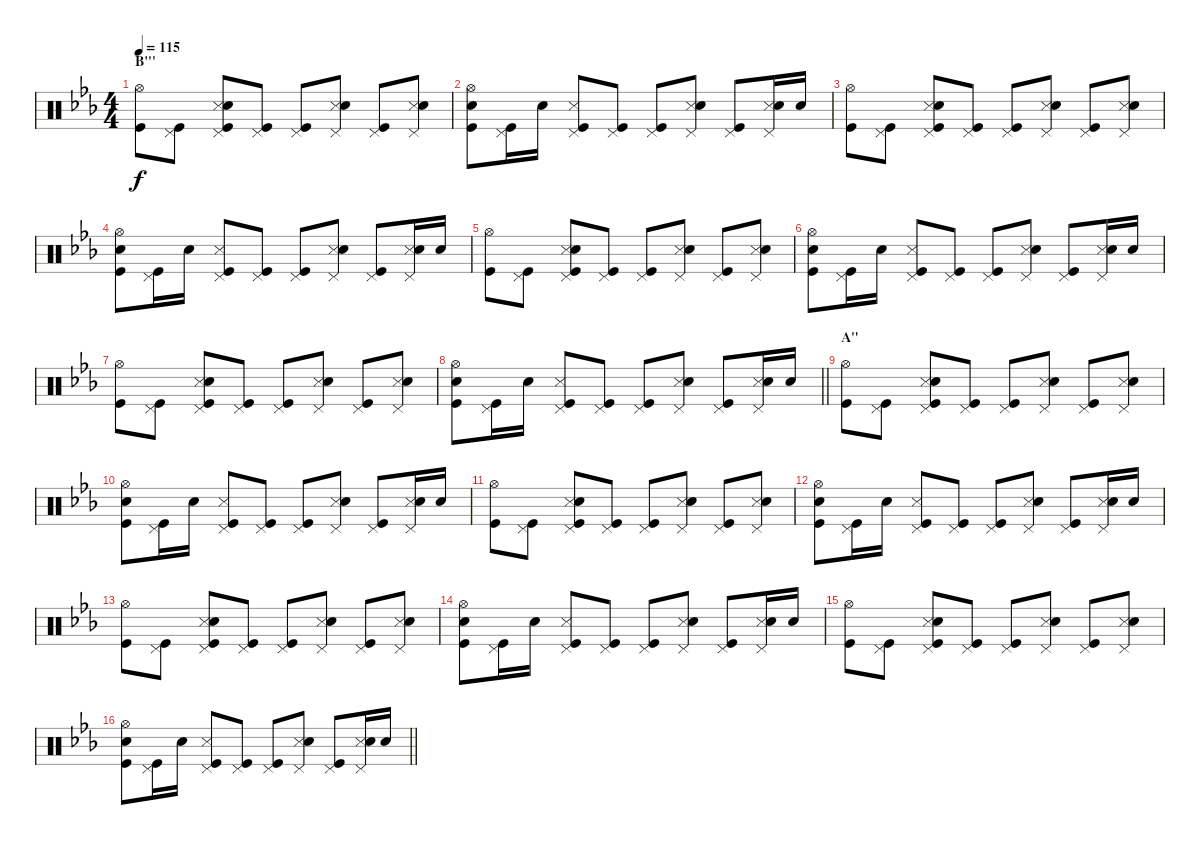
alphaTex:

\track "" {instrument percussion}
\staff {score}
\articulation defaults
\ts (4 4)
\section ("" "B'''")
\tempo 115
\clef neutral
\ks cminor
("Hi-Hat (open)" "Kick (hit)").8{dy f} ("Pedal Hi-Hat (hit)" "Kick (hit)").8 ("Pedal Hi-Hat (hit)" "Snare (side stick) 3" "Electric Snare (hit)" "Kick (hit)").8 ("Pedal Hi-Hat (hit)" "Kick (hit)").8 ("Pedal Hi-Hat (hit)" "Kick (hit)").8 ("Pedal Hi-Hat (hit)" "Snare (side stick) 3" "Electric Snare (hit)").8 ("Pedal Hi-Hat (hit)" "Kick (hit)").8 ("Pedal Hi-Hat (hit)" "Snare (side stick) 3" "Electric Snare (hit)").8 |
("Hi-Hat (open)" "Electric Snare (hit)" "Kick (hit)").8 ("Pedal Hi-Hat (hit)" "Kick (hit)").16 "Electric Snare (hit)".16 ("Pedal Hi-Hat (hit)" "Snare (side stick) 3" "Kick (hit)").8 ("Pedal Hi-Hat (hit)" "Kick (hit)").8 ("Pedal Hi-Hat (hit)" "Kick (hit)").8 ("Pedal Hi-Hat (hit)" "Snare (side stick) 3" "Electric Snare (hit)").8 ("Pedal Hi-Hat (hit)" "Kick (hit)").8 ("Pedal Hi-Hat (hit)" "Snare (side stick) 3" "Electric Snare (hit)").16 "Electric Snare (hit)".16 |
("Hi-Hat (open)" "Kick (hit)").8 ("Pedal Hi-Hat (hit)" "Kick (hit)").8 ("Pedal Hi-Hat (hit)" "Snare (side stick) 3" "Electric Snare (hit)" "Kick (hit)").8 ("Pedal Hi-Hat (hit)" "Kick (hit)").8 ("Pedal Hi-Hat (hit)" "Kick (hit)").8 ("Pedal Hi-Hat (hit)" "Snare (side stick) 3" "Electric Snare (hit)").8 ("Pedal Hi-Hat (hit)" "Kick (hit)").8 ("Pedal Hi-Hat (hit)" "Snare (side stick) 3" "Electric Snare (hit)").8 |
("Hi-Hat (open)" "Electric Snare (hit)" "Kick (hit)").8 ("Pedal Hi-Hat (hit)" "Kick (hit)").16 "Electric Snare (hit)".16 ("Pedal Hi-Hat (hit)" "Snare (side stick) 3" "Kick (hit)").8 ("Pedal Hi-Hat (hit)" "Kick (hit)").8 ("Pedal Hi-Hat (hit)" "Kick (hit)").8 ("Pedal Hi-Hat (hit)" "Snare (side stick) 3" "Electric Snare (hit)").8 ("Pedal Hi-Hat (hit)" "Kick (hit)").8 ("Pedal Hi-Hat (hit)" "Snare (side stick) 3" "Electric Snare (hit)").16 "Electric Snare (hit)".16 |
("Hi-Hat (open)" "Kick (hit)").8 ("Pedal Hi-Hat (hit)" "Kick (hit)").8 ("Pedal Hi-Hat (hit)" "Snare (side stick) 3" "Electric Snare (hit)" "Kick (hit)").8 ("Pedal Hi-Hat (hit)" "Kick (hit)").8 ("Pedal Hi-Hat (hit)" "Kick (hit)").8 ("Pedal Hi-Hat (hit)" "Snare (side stick) 3" "Electric Snare (hit)").8 ("Pedal Hi-Hat (hit)" "Kick (hit)").8 ("Pedal Hi-Hat (hit)" "Snare (side stick) 3" "Electric Snare (hit)").8 |
("Hi-Hat (open)" "Electric Snare (hit)" "Kick (hit)").8 ("Pedal Hi-Hat (hit)" "Kick (hit)").16 "Electric Snare (hit)".16 ("Pedal Hi-Hat (hit)" "Snare (side stick) 3" "Kick (hit)").8 ("Pedal Hi-Hat (hit)" "Kick (hit)").8 ("Pedal Hi-Hat (hit)" "Kick (hit)").8 ("Pedal Hi-Hat (hit)" "Snare (side stick) 3" "Electric Snare (hit)").8 ("Pedal Hi-Hat (hit)" "Kick (hit)").8 ("Pedal Hi-Hat (hit)" "Snare (side stick) 3" "Electric Snare (hit)").16 "Electric Snare (hit)".16 |
("Hi-Hat (open)" "Kick (hit)").8 ("Pedal Hi-Hat (hit)" "Kick (hit)").8 ("Pedal Hi-Hat (hit)" "Snare (side stick) 3" "Electric Snare (hit)" "Kick (hit)").8 ("Pedal Hi-Hat (hit)" "Kick (hit)").8 ("Pedal Hi-Hat (hit)" "Kick (hit)").8 ("Pedal Hi-Hat (hit)" "Snare (side stick) 3" "Electric Snare (hit)").8 ("Pedal Hi-Hat (hit)" "Kick (hit)").8 ("Pedal Hi-Hat (hit)" "Snare (side stick) 3" "Electric Snare (hit)").8 |
\barLineRight lightlight
("Hi-Hat (open)" "Electric Snare (hit)" "Kick (hit)").8 ("Pedal Hi-Hat (hit)" "Kick (hit)").16 "Electric Snare (hit)".16 ("Pedal Hi-Hat (hit)" "Snare (side stick) 3" "Kick (hit)").8 ("Pedal Hi-Hat (hit)" "Kick (hit)").8 ("Pedal Hi-Hat (hit)" "Kick (hit)").8 ("Pedal Hi-Hat (hit)" "Snare (side stick) 3" "Electric Snare (hit)").8 ("Pedal Hi-Hat (hit)" "Kick (hit)").8 ("Pedal Hi-Hat (hit)" "Snare (side stick) 3" "Electric Snare (hit)").16 "Electric Snare (hit)".16 |
\section ("" "A''")
("Hi-Hat (open)" "Kick (hit)").8 ("Pedal Hi-Hat (hit)" "Kick (hit)").8 ("Pedal Hi-Hat (hit)" "Snare (side stick) 3" "Electric Snare (hit)" "Kick (hit)").8 ("Pedal Hi-Hat (hit)" "Kick (hit)").8 ("Pedal Hi-Hat (hit)" "Kick (hit)").8 ("Pedal Hi-Hat (hit)" "Snare (side stick) 3" "Electric Snare (hit)").8 ("Pedal Hi-Hat (hit)" "Kick (hit)").8 ("Pedal Hi-Hat (hit)" "Snare (side stick) 3" "Electric Snare (hit)").8 |
("Hi-Hat (open)" "Electric Snare (hit)" "Kick (hit)").8 ("Pedal Hi-Hat (hit)" "Kick (hit)").16 "Electric Snare (hit)".16 ("Pedal Hi-Hat (hit)" "Snare (side stick) 3" "Kick (hit)").8 ("Pedal Hi-Hat (hit)" "Kick (hit)").8 ("Pedal Hi-Hat (hit)" "Kick (hit)").8 ("Pedal Hi-Hat (hit)" "Snare (side stick) 3" "Electric Snare (hit)").8 ("Pedal Hi-Hat (hit)" "Kick (hit)").8 ("Pedal Hi-Hat (hit)" "Snare (side stick) 3" "Electric Snare (hit)").16 "Electric Snare (hit)".16 |
("Hi-Hat (open)" "Kick (hit)").8 ("Pedal Hi-Hat (hit)" "Kick (hit)").8 ("Pedal Hi-Hat (hit)" "Snare (side stick) 3" "Electric Snare (hit)" "Kick (hit)").8 ("Pedal Hi-Hat (hit)" "Kick (hit)").8 ("Pedal Hi-Hat (hit)" "Kick (hit)").8 ("Pedal Hi-Hat (hit)" "Snare (side stick) 3" "Electric Snare (hit)").8 ("Pedal Hi-Hat (hit)" "Kick (hit)").8 ("Pedal Hi-Hat (hit)" "Snare (side stick) 3" "Electric Snare (hit)").8 |
("Hi-Hat (open)" "Electric Snare (hit)" "Kick (hit)").8 ("Pedal Hi-Hat (hit)" "Kick (hit)").16 "Electric Snare (hit)".16 ("Pedal Hi-Hat (hit)" "Snare (side stick) 3" "Kick (hit)").8 ("Pedal Hi-Hat (hit)" "Kick (hit)").8 ("Pedal Hi-Hat (hit)" "Kick (hit)").8 ("Pedal Hi-Hat (hit)" "Snare (side stick) 3" "Electric Snare (hit)").8 ("Pedal Hi-Hat (hit)" "Kick (hit)").8 ("Pedal Hi-Hat (hit)" "Snare (side stick) 3" "Electric Snare (hit)").16 "Electric Snare (hit)".16 |
("Hi-Hat (open)" "Kick (hit)").8 ("Pedal Hi-Hat (hit)" "Kick (hit)").8 ("Pedal Hi-Hat (hit)" "Snare (side stick) 3" "Electric Snare (hit)" "Kick (hit)").8 ("Pedal Hi-Hat (hit)" "Kick (hit)").8 ("Pedal Hi-Hat (hit)" "Kick (hit)").8 ("Pedal Hi-Hat (hit)" "Snare (side stick) 3" "Electric Snare (hit)").8 ("Pedal Hi-Hat (hit)" "Kick (hit)").8 ("Pedal Hi-Hat (hit)" "Snare (side stick) 3" "Electric Snare (hit)").8 |
("Hi-Hat (open)" "Electric Snare (hit)" "Kick (hit)").8 ("Pedal Hi-Hat (hit)" "Kick (hit)").16 "Electric Snare (hit)".16 ("Pedal Hi-Hat (hit)" "Snare (side stick) 3" "Kick (hit)").8 ("Pedal Hi-Hat (hit)" "Kick (hit)").8 ("Pedal Hi-Hat (hit)" "Kick (hit)").8 ("Pedal Hi-Hat (hit)" "Snare (side stick) 3" "Electric Snare (hit)").8 ("Pedal Hi-Hat (hit)" "Kick (hit)").8 ("Pedal Hi-Hat (hit)" "Snare (side stick) 3" "Electric Snare (hit)").16 "Electric Snare (hit)".16 |
("Hi-Hat (open)" "Kick (hit)").8 ("Pedal Hi-Hat (hit)" "Kick (hit)").8 ("Pedal Hi-Hat (hit)" "Snare (side stick) 3" "Electric Snare (hit)" "Kick (hit)").8 ("Pedal Hi-Hat (hit)" "Kick (hit)").8 ("Pedal Hi-Hat (hit)" "Kick (hit)").8 ("Pedal Hi-Hat (hit)" "Snare (side stick) 3" "Electric Snare (hit)").8 ("Pedal Hi-Hat (hit)" "Kick (hit)").8 ("Pedal Hi-Hat (hit)" "Snare (side stick) 3" "Electric Snare (hit)").8 |
\barLineRight lightlight
("Hi-Hat (open)" "Electric Snare (hit)" "Kick (hit)").8 ("Pedal Hi-Hat (hit)" "Kick (hit)").16 "Electric Snare (hit)".16 ("Pedal Hi-Hat (hit)" "Snare (side stick) 3" "Kick (hit)").8 ("Pedal Hi-Hat (hit)" "Kick (hit)").8 ("Pedal Hi-Hat (hit)" "Kick (hit)").8 ("Pedal Hi-Hat (hit)" "Snare (side stick) 3" "Electric Snare (hit)").8 ("Pedal Hi-Hat (hit)" "Kick (hit)").8 ("Pedal Hi-Hat (hit)" "Snare (side stick) 3" "Electric Snare (hit)").16 "Electric Snare (hit)".16
